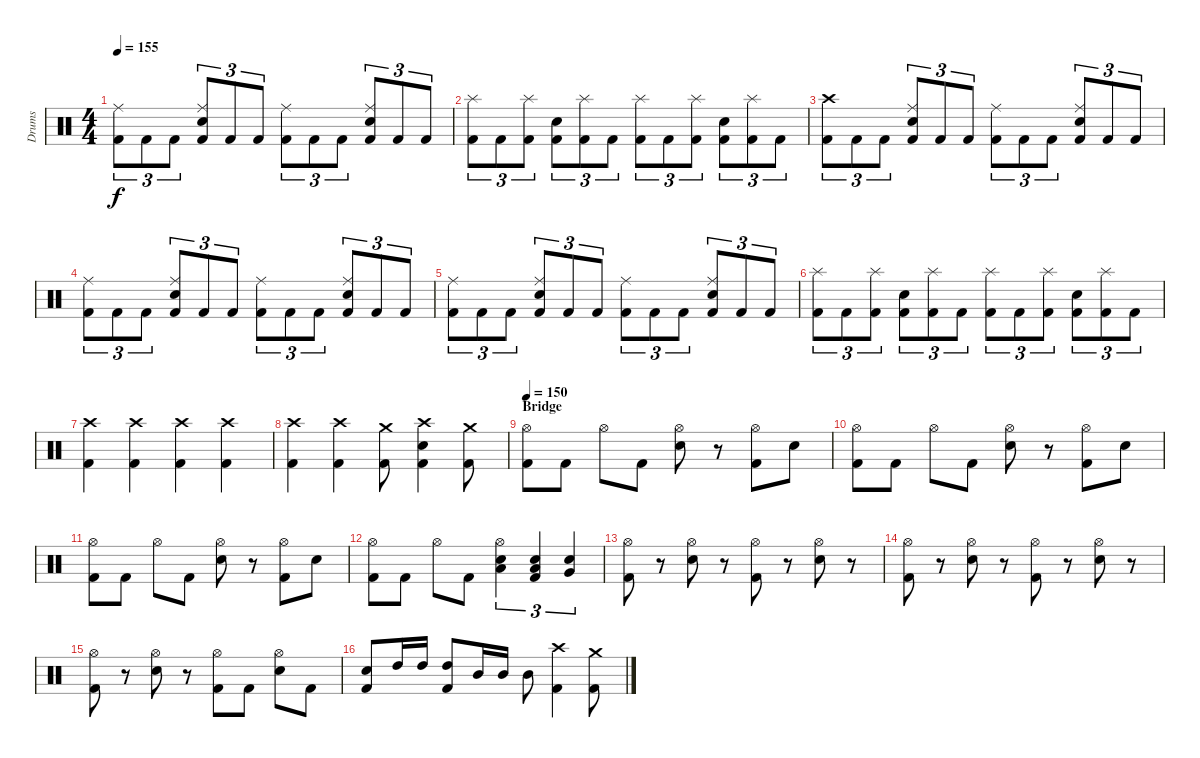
\track ("Drums" "Drums") {instrument percussion}
\staff {score}
\articulation defaults
\ts (4 4)
\tempo 155
\clef neutral
\ks c
("Kick (hit) 2" "Ride (middle)").8{tu (3 2) dy f} "Kick (hit) 2".8{tu (3 2)} "Kick (hit) 2".8{tu (3 2)} ("Kick (hit) 2" "Electric Snare (hit)" "Ride (middle)").8{tu (3 2)} "Kick (hit) 2".8{tu (3 2)} "Kick (hit) 2".8{tu (3 2)} ("Kick (hit) 2" "Ride (middle)").8{tu (3 2)} "Kick (hit) 2".8{tu (3 2)} "Kick (hit) 2".8{tu (3 2)} ("Kick (hit) 2" "Electric Snare (hit)" "Ride (middle)").8{tu (3 2)} "Kick (hit) 2".8{tu (3 2)} "Kick (hit) 2".8{tu (3 2)} |
("Kick (hit) 2" "Splash (hit)").8{tu (3 2)} "Kick (hit) 2".8{tu (3 2)} ("Kick (hit) 2" "Splash (hit)").8{tu (3 2)} ("Kick (hit) 2" "Electric Snare (hit)").8{tu (3 2)} ("Kick (hit) 2" "Splash (hit)").8{tu (3 2)} "Kick (hit) 2".8{tu (3 2)} ("Kick (hit) 2" "Splash (hit)").8{tu (3 2)} "Kick (hit) 2".8{tu (3 2)} ("Kick (hit) 2" "Splash (hit)").8{tu (3 2)} ("Kick (hit) 2" "Electric Snare (hit)").8{tu (3 2)} ("Kick (hit) 2" "Splash (hit)").8{tu (3 2)} "Kick (hit) 2".8{tu (3 2)} |
("Kick (hit) 2" "Crash high (hit)").8{tu (3 2)} "Kick (hit) 2".8{tu (3 2)} "Kick (hit) 2".8{tu (3 2)} ("Kick (hit) 2" "Electric Snare (hit)" "Ride (middle)").8{tu (3 2)} "Kick (hit) 2".8{tu (3 2)} "Kick (hit) 2".8{tu (3 2)} ("Kick (hit) 2" "Ride (middle)").8{tu (3 2)} "Kick (hit) 2".8{tu (3 2)} "Kick (hit) 2".8{tu (3 2)} ("Kick (hit) 2" "Electric Snare (hit)" "Ride (middle)").8{tu (3 2)} "Kick (hit) 2".8{tu (3 2)} "Kick (hit) 2".8{tu (3 2)} |
("Kick (hit) 2" "Ride (middle)").8{tu (3 2)} "Kick (hit) 2".8{tu (3 2)} "Kick (hit) 2".8{tu (3 2)} ("Kick (hit) 2" "Electric Snare (hit)" "Ride (middle)").8{tu (3 2)} "Kick (hit) 2".8{tu (3 2)} "Kick (hit) 2".8{tu (3 2)} ("Kick (hit) 2" "Ride (middle)").8{tu (3 2)} "Kick (hit) 2".8{tu (3 2)} "Kick (hit) 2".8{tu (3 2)} ("Kick (hit) 2" "Electric Snare (hit)" "Ride (middle)").8{tu (3 2)} "Kick (hit) 2".8{tu (3 2)} "Kick (hit) 2".8{tu (3 2)} |
("Kick (hit) 2" "Ride (middle)").8{tu (3 2)} "Kick (hit) 2".8{tu (3 2)} "Kick (hit) 2".8{tu (3 2)} ("Kick (hit) 2" "Electric Snare (hit)" "Ride (middle)").8{tu (3 2)} "Kick (hit) 2".8{tu (3 2)} "Kick (hit) 2".8{tu (3 2)} ("Kick (hit) 2" "Ride (middle)").8{tu (3 2)} "Kick (hit) 2".8{tu (3 2)} "Kick (hit) 2".8{tu (3 2)} ("Kick (hit) 2" "Electric Snare (hit)" "Ride (middle)").8{tu (3 2)} "Kick (hit) 2".8{tu (3 2)} "Kick (hit) 2".8{tu (3 2)} |
("Kick (hit) 2" "Splash (hit)").8{tu (3 2)} "Kick (hit) 2".8{tu (3 2)} ("Kick (hit) 2" "Splash (hit)").8{tu (3 2)} ("Kick (hit) 2" "Electric Snare (hit)").8{tu (3 2)} ("Kick (hit) 2" "Splash (hit)").8{tu (3 2)} "Kick (hit) 2".8{tu (3 2)} ("Kick (hit) 2" "Splash (hit)").8{tu (3 2)} "Kick (hit) 2".8{tu (3 2)} ("Kick (hit) 2" "Splash (hit)").8{tu (3 2)} ("Kick (hit) 2" "Electric Snare (hit)").8{tu (3 2)} ("Kick (hit) 2" "Splash (hit)").8{tu (3 2)} "Kick (hit) 2".8{tu (3 2)} |
("Kick (hit) 2" "Crash high (hit)").4 ("Kick (hit) 2" "Crash high (hit)").4 ("Kick (hit) 2" "Crash high (hit)").4 ("Kick (hit) 2" "Crash high (hit)").4 |
("Kick (hit) 2" "Crash high (hit)").4 ("Kick (hit) 2" "Crash high (hit)").4 ("Kick (hit) 2" "Crash medium (hit)").8 ("Kick (hit) 2" "Electric Snare (hit)" "Crash high (hit)").4 ("Kick (hit) 2" "Crash medium (hit)").8 |
\section ("" "Bridge")
\tempo 150
("Kick (hit) 2" "Hi-Hat (open)").8 "Kick (hit) 2".8 "Hi-Hat (open)".8 "Kick (hit) 2".8 ("Electric Snare (hit)" "Hi-Hat (open)").8 r.8 ("Kick (hit) 2" "Hi-Hat (open)").8 "Electric Snare (hit)".8 |
("Kick (hit) 2" "Hi-Hat (open)").8 "Kick (hit) 2".8 "Hi-Hat (open)".8 "Kick (hit) 2".8 ("Electric Snare (hit)" "Hi-Hat (open)").8 r.8 ("Kick (hit) 2" "Hi-Hat (open)").8 "Electric Snare (hit)".8 |
("Kick (hit) 2" "Hi-Hat (open)").8 "Kick (hit) 2".8 "Hi-Hat (open)".8 "Kick (hit) 2".8 ("Electric Snare (hit)" "Hi-Hat (open)").8 r.8 ("Kick (hit) 2" "Hi-Hat (open)").8 "Electric Snare (hit)".8 |
("Kick (hit) 2" "Hi-Hat (open)").8 "Kick (hit) 2".8 "Hi-Hat (open)".8 "Kick (hit) 2".8 ("Electric Snare (hit)" "Low Tom (hit)" "Hi-Hat (open)").4{tu (3 2)} ("Kick (hit) 2" "Electric Snare (hit)" "Low Tom (hit)").4{tu (3 2)} ("Electric Snare (hit)" "Very Low Tom (hit)").4{tu (3 2)} |
("Kick (hit) 2" "Hi-Hat (open)").8 r.8 ("Electric Snare (hit)" "Hi-Hat (open)").8 r.8 ("Kick (hit) 2" "Hi-Hat (open)").8 r.8 ("Electric Snare (hit)" "Hi-Hat (open)").8 r.8 |
("Kick (hit) 2" "Hi-Hat (open)").8 r.8 ("Electric Snare (hit)" "Hi-Hat (open)").8 r.8 ("Kick (hit) 2" "Hi-Hat (open)").8 r.8 ("Electric Snare (hit)" "Hi-Hat (open)").8 r.8 |
("Kick (hit) 2" "Hi-Hat (open)").8 r.8 ("Electric Snare (hit)" "Hi-Hat (open)").8 r.8 ("Kick (hit) 2" "Hi-Hat (open)").8 "Kick (hit) 2".8 ("Electric Snare (hit)" "Hi-Hat (open)").8 "Kick (hit) 2".8 |
("Kick (hit) 2" "Electric Snare (hit)").8 "High Tom (hit)".16 "High Tom (hit)".16 ("Kick (hit) 2" "High Tom (hit)").8 "Mid Tom (hit)".16 "Mid Tom (hit)".16 "Mid Tom (hit)".8 ("Kick (hit) 2" "Crash high (hit)").4 ("Kick (hit) 2" "Crash medium (hit)").8
